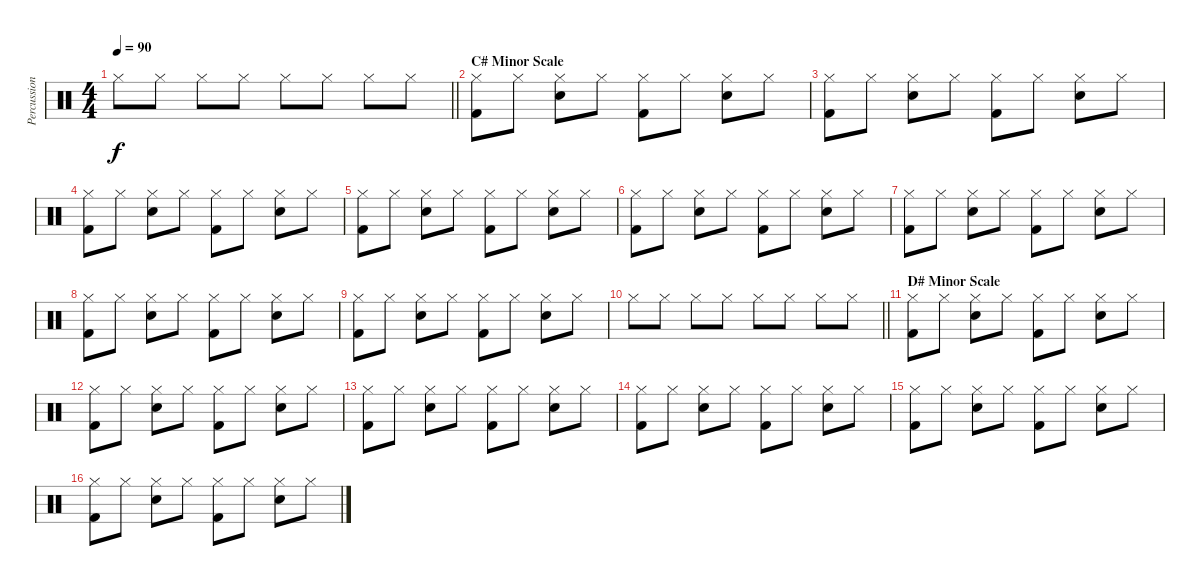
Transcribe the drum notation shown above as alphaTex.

\track ("Percussion" "Percussion") {instrument percussion}
\staff {score}
\articulation defaults
\ts (4 4)
\tempo 90
\clef neutral
\barLineRight lightlight
\ks c "Hi-Hat (closed)".8{dy f} "Hi-Hat (closed)".8 "Hi-Hat (closed)".8 "Hi-Hat (closed)".8 "Hi-Hat (closed)".8 "Hi-Hat (closed)".8 "Hi-Hat (closed)".8 "Hi-Hat (closed)".8
|
\section ("" "C# Minor Scale")
("Kick (hit) 2" "Hi-Hat (closed)").8 "Hi-Hat (closed)".8 ("Snare (hit) 2" "Hi-Hat (closed)").8 "Hi-Hat (closed)".8 ("Kick (hit) 2" "Hi-Hat (closed)").8 "Hi-Hat (closed)".8 ("Snare (hit) 2" "Hi-Hat (closed)").8 "Hi-Hat (closed)".8 |
("Kick (hit) 2" "Hi-Hat (closed)").8 "Hi-Hat (closed)".8 ("Snare (hit) 2" "Hi-Hat (closed)").8 "Hi-Hat (closed)".8 ("Kick (hit) 2" "Hi-Hat (closed)").8 "Hi-Hat (closed)".8 ("Snare (hit) 2" "Hi-Hat (closed)").8 "Hi-Hat (closed)".8 |
("Kick (hit) 2" "Hi-Hat (closed)").8 "Hi-Hat (closed)".8 ("Snare (hit) 2" "Hi-Hat (closed)").8 "Hi-Hat (closed)".8 ("Kick (hit) 2" "Hi-Hat (closed)").8 "Hi-Hat (closed)".8 ("Snare (hit) 2" "Hi-Hat (closed)").8 "Hi-Hat (closed)".8 |
("Kick (hit) 2" "Hi-Hat (closed)").8 "Hi-Hat (closed)".8 ("Snare (hit) 2" "Hi-Hat (closed)").8 "Hi-Hat (closed)".8 ("Kick (hit) 2" "Hi-Hat (closed)").8 "Hi-Hat (closed)".8 ("Snare (hit) 2" "Hi-Hat (closed)").8 "Hi-Hat (closed)".8 |
("Kick (hit) 2" "Hi-Hat (closed)").8 "Hi-Hat (closed)".8 ("Snare (hit) 2" "Hi-Hat (closed)").8 "Hi-Hat (closed)".8 ("Kick (hit) 2" "Hi-Hat (closed)").8 "Hi-Hat (closed)".8 ("Snare (hit) 2" "Hi-Hat (closed)").8 "Hi-Hat (closed)".8 |
("Kick (hit) 2" "Hi-Hat (closed)").8 "Hi-Hat (closed)".8 ("Snare (hit) 2" "Hi-Hat (closed)").8 "Hi-Hat (closed)".8 ("Kick (hit) 2" "Hi-Hat (closed)").8 "Hi-Hat (closed)".8 ("Snare (hit) 2" "Hi-Hat (closed)").8 "Hi-Hat (closed)".8 |
("Kick (hit) 2" "Hi-Hat (closed)").8 "Hi-Hat (closed)".8 ("Snare (hit) 2" "Hi-Hat (closed)").8 "Hi-Hat (closed)".8 ("Kick (hit) 2" "Hi-Hat (closed)").8 "Hi-Hat (closed)".8 ("Snare (hit) 2" "Hi-Hat (closed)").8 "Hi-Hat (closed)".8 |
("Kick (hit) 2" "Hi-Hat (closed)").8 "Hi-Hat (closed)".8 ("Snare (hit) 2" "Hi-Hat (closed)").8 "Hi-Hat (closed)".8 ("Kick (hit) 2" "Hi-Hat (closed)").8 "Hi-Hat (closed)".8 ("Snare (hit) 2" "Hi-Hat (closed)").8 "Hi-Hat (closed)".8 |
\barLineRight lightlight "Hi-Hat (closed)".8 "Hi-Hat (closed)".8 "Hi-Hat (closed)".8 "Hi-Hat (closed)".8 "Hi-Hat (closed)".8 "Hi-Hat (closed)".8 "Hi-Hat (closed)".8 "Hi-Hat (closed)".8
|
\section ("" "D# Minor Scale")
("Kick (hit) 2" "Hi-Hat (closed)").8 "Hi-Hat (closed)".8 ("Snare (hit) 2" "Hi-Hat (closed)").8 "Hi-Hat (closed)".8 ("Kick (hit) 2" "Hi-Hat (closed)").8 "Hi-Hat (closed)".8 ("Snare (hit) 2" "Hi-Hat (closed)").8 "Hi-Hat (closed)".8 |
("Kick (hit) 2" "Hi-Hat (closed)").8 "Hi-Hat (closed)".8 ("Snare (hit) 2" "Hi-Hat (closed)").8 "Hi-Hat (closed)".8 ("Kick (hit) 2" "Hi-Hat (closed)").8 "Hi-Hat (closed)".8 ("Snare (hit) 2" "Hi-Hat (closed)").8 "Hi-Hat (closed)".8 |
("Kick (hit) 2" "Hi-Hat (closed)").8 "Hi-Hat (closed)".8 ("Snare (hit) 2" "Hi-Hat (closed)").8 "Hi-Hat (closed)".8 ("Kick (hit) 2" "Hi-Hat (closed)").8 "Hi-Hat (closed)".8 ("Snare (hit) 2" "Hi-Hat (closed)").8 "Hi-Hat (closed)".8 |
("Kick (hit) 2" "Hi-Hat (closed)").8 "Hi-Hat (closed)".8 ("Snare (hit) 2" "Hi-Hat (closed)").8 "Hi-Hat (closed)".8 ("Kick (hit) 2" "Hi-Hat (closed)").8 "Hi-Hat (closed)".8 ("Snare (hit) 2" "Hi-Hat (closed)").8 "Hi-Hat (closed)".8 |
("Kick (hit) 2" "Hi-Hat (closed)").8 "Hi-Hat (closed)".8 ("Snare (hit) 2" "Hi-Hat (closed)").8 "Hi-Hat (closed)".8 ("Kick (hit) 2" "Hi-Hat (closed)").8 "Hi-Hat (closed)".8 ("Snare (hit) 2" "Hi-Hat (closed)").8 "Hi-Hat (closed)".8 |
("Kick (hit) 2" "Hi-Hat (closed)").8 "Hi-Hat (closed)".8 ("Snare (hit) 2" "Hi-Hat (closed)").8 "Hi-Hat (closed)".8 ("Kick (hit) 2" "Hi-Hat (closed)").8 "Hi-Hat (closed)".8 ("Snare (hit) 2" "Hi-Hat (closed)").8 "Hi-Hat (closed)".8
